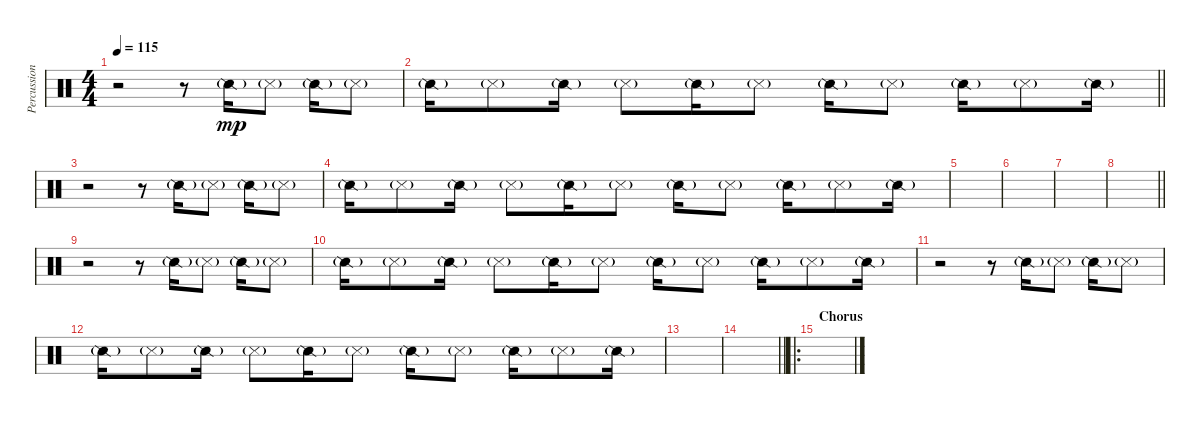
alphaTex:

\track ("Percussion FX" "Percussion") {instrument percussion}
\staff {score}
\articulation defaults
\ts (4 4)
\tempo 115
\clef neutral
\ks c
r.2{dy mp} r.8 "Snare (side stick) 2"{g}.16 "Snare (side stick) 3"{g}.8 "Snare (side stick) 2"{g}.16 "Snare (side stick) 3"{g}.8 |
\barLineRight lightlight "Snare (side stick) 2"{g}.16 "Snare (side stick) 3"{g}.8 "Snare (side stick) 2"{g}.16 "Snare (side stick) 3"{g}.8 "Snare (side stick) 2"{g}.16 "Snare (side stick) 3"{g}.8 "Snare (side stick) 2"{g}.16 "Snare (side stick) 3"{g}.8 "Snare (side stick) 2"{g}.16 "Snare (side stick) 3"{g}.8 "Snare (side stick) 2"{g}.16
|
r.2 r.8 "Snare (side stick) 2"{g}.16 "Snare (side stick) 3"{g}.8 "Snare (side stick) 2"{g}.16 "Snare (side stick) 3"{g}.8 |
"Snare (side stick) 2"{g}.16 "Snare (side stick) 3"{g}.8 "Snare (side stick) 2"{g}.16 "Snare (side stick) 3"{g}.8 "Snare (side stick) 2"{g}.16 "Snare (side stick) 3"{g}.8 "Snare (side stick) 2"{g}.16 "Snare (side stick) 3"{g}.8 "Snare (side stick) 2"{g}.16 "Snare (side stick) 3"{g}.8 "Snare (side stick) 2"{g}.16 |
|
|
|
\barLineRight lightlight
|
r.2 r.8 "Snare (side stick) 2"{g}.16 "Snare (side stick) 3"{g}.8 "Snare (side stick) 2"{g}.16 "Snare (side stick) 3"{g}.8 |
"Snare (side stick) 2"{g}.16 "Snare (side stick) 3"{g}.8 "Snare (side stick) 2"{g}.16 "Snare (side stick) 3"{g}.8 "Snare (side stick) 2"{g}.16 "Snare (side stick) 3"{g}.8 "Snare (side stick) 2"{g}.16 "Snare (side stick) 3"{g}.8 "Snare (side stick) 2"{g}.16 "Snare (side stick) 3"{g}.8 "Snare (side stick) 2"{g}.16 |
r.2 r.8 "Snare (side stick) 2"{g}.16 "Snare (side stick) 3"{g}.8 "Snare (side stick) 2"{g}.16 "Snare (side stick) 3"{g}.8 |
"Snare (side stick) 2"{g}.16 "Snare (side stick) 3"{g}.8 "Snare (side stick) 2"{g}.16 "Snare (side stick) 3"{g}.8 "Snare (side stick) 2"{g}.16 "Snare (side stick) 3"{g}.8 "Snare (side stick) 2"{g}.16 "Snare (side stick) 3"{g}.8 "Snare (side stick) 2"{g}.16 "Snare (side stick) 3"{g}.8 "Snare (side stick) 2"{g}.16 |
|
\barLineRight lightlight
|
\ro
\section ("" "Chorus")
